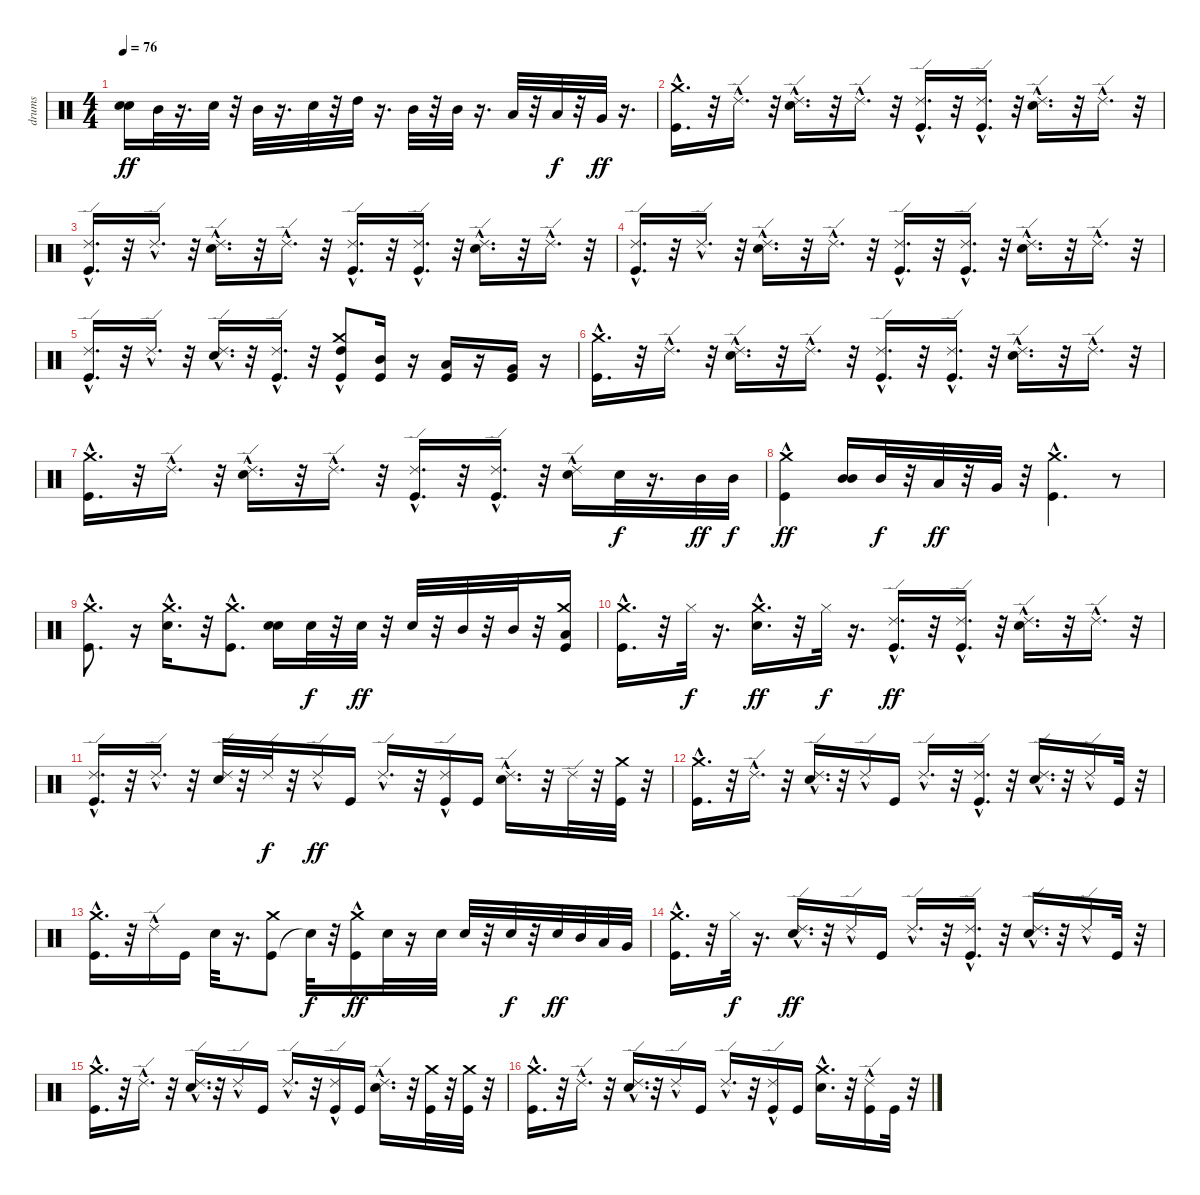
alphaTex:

\track ("drums" "drums") {instrument percussion}
\staff {score}
\articulation defaults
\ts (4 4)
\tempo 76
\clef neutral
\ks c
("Electric Snare (hit)" "Electric Snare (hit)").16{dy ff} "Mid Tom (hit)".32 r.16{d} "Electric Snare (hit)".32 r.32 "Mid Tom (hit)".32 r.16{d} "Electric Snare (hit)".32 r.32 "High Tom (hit)".32 r.16{d} "Mid Tom (hit)".32 r.32 "Mid Tom (hit)".32 r.16{d} "Low Tom (hit)".32 r.32 "Low Tom (hit)".32{dy f} r.32 "Very Low Tom (hit)".32{dy ff} r.16{d} |
("Crash medium (hit)"{hac} "Kick (hit)").16{d} r.32 "Ride (edge) 2"{hac}.16{d} r.32 ("Ride (edge) 2"{hac} "Electric Snare (hit)").16{d} r.32 "Ride (edge) 2"{hac}.16{d} r.32 ("Ride (edge) 2"{hac} "Kick (hit)").16{d} r.32 ("Ride (edge) 2"{hac} "Kick (hit)").16{d} r.32 ("Ride (edge) 2"{hac} "Electric Snare (hit)").16{d} r.32 "Ride (edge) 2"{hac}.16{d} r.32 |
("Kick (hit)" "Ride (edge) 2"{hac}).16{d} r.32 "Ride (edge) 2"{hac}.16{d} r.32 ("Ride (edge) 2"{hac} "Electric Snare (hit)").16{d} r.32 "Ride (edge) 2"{hac}.16{d} r.32 ("Ride (edge) 2"{hac} "Kick (hit)").16{d} r.32 ("Ride (edge) 2"{hac} "Kick (hit)").16{d} r.32 ("Ride (edge) 2"{hac} "Electric Snare (hit)").16{d} r.32 "Ride (edge) 2"{hac}.16{d} r.32 |
("Kick (hit)" "Ride (edge) 2"{hac}).16{d} r.32 "Ride (edge) 2"{hac}.16{d} r.32 ("Ride (edge) 2"{hac} "Electric Snare (hit)").16{d} r.32 "Ride (edge) 2"{hac}.16{d} r.32 ("Ride (edge) 2"{hac} "Kick (hit)").16{d} r.32 ("Ride (edge) 2"{hac} "Kick (hit)").16{d} r.32 ("Ride (edge) 2"{hac} "Electric Snare (hit)").16{d} r.32 "Ride (edge) 2"{hac}.16{d} r.32 |
("Kick (hit)" "Ride (edge) 2"{hac}).16{d} r.32 "Ride (edge) 2"{hac}.16{d} r.32 ("Ride (edge) 2"{hac} "Electric Snare (hit)").16{d} r.32 ("Ride (edge) 2"{hac} "Kick (hit)").16{d} r.32 ("Kick (hit)" "Crash medium (hit)"{hac} "High Tom (hit)").8 ("Kick (hit)" "Mid Tom (hit)").16 r.16 ("Low Tom (hit)" "Kick (hit)").16 r.16 ("Very Low Tom (hit)" "Kick (hit)").16 r.16 |
("Crash medium (hit)"{hac} "Kick (hit)").16{d} r.32 "Ride (edge) 2"{hac}.16{d} r.32 ("Ride (edge) 2"{hac} "Electric Snare (hit)").16{d} r.32 "Ride (edge) 2"{hac}.16{d} r.32 ("Ride (edge) 2"{hac} "Kick (hit)").16{d} r.32 ("Ride (edge) 2"{hac} "Kick (hit)").16{d} r.32 ("Ride (edge) 2"{hac} "Electric Snare (hit)").16{d} r.32 "Ride (edge) 2"{hac}.16{d} r.32 |
("Crash medium (hit)"{hac} "Kick (hit)").16{d} r.32 "Ride (edge) 2"{hac}.16{d} r.32 ("Ride (edge) 2"{hac} "Electric Snare (hit)").16{d} r.32 "Ride (edge) 2"{hac}.16{d} r.32 ("Ride (edge) 2"{hac} "Kick (hit)").16{d} r.32 ("Ride (edge) 2"{hac} "Kick (hit)").16{d} r.32 ("Ride (edge) 2"{hac} "Electric Snare (hit)").16 "Electric Snare (hit)".32{dy f} r.16{d} "Mid Tom (hit)".32{dy ff} "Mid Tom (hit)".32{dy f} |
("Kick (hit)" "Crash medium (hit)"{hac}).4{dy ff} ("Mid Tom (hit)" "Mid Tom (hit)").16 "Mid Tom (hit)".32{dy f} r.32 "Low Tom (hit)".32{dy ff} r.32 "Very Low Tom (hit)".32 r.32 ("Kick (hit)" "Crash medium (hit)"{hac}).4{d} r.8 |
("Kick (hit)" "Crash medium (hit)"{hac}).8{d} r.16 ("Electric Snare (hit)" "Crash medium (hit)"{hac}).16{d} r.32 ("Kick (hit)" "Crash medium (hit)"{hac}).8{d} ("Electric Snare (hit)" "Electric Snare (hit)").16 "Electric Snare (hit)".32{dy f} r.32 "Electric Snare (hit)".32{dy ff} r.32 "Electric Snare (hit)".32 r.32 "Mid Tom (hit)".32 r.32 "Mid Tom (hit)".32 r.32 ("Low Tom (hit)" "Kick (hit)" "Crash medium (hit)").16 |
("Kick (hit)" "Crash medium (hit)"{hac}).16{d} r.32 "Hi-Hat (closed)".32{dy f} r.16{d} ("Electric Snare (hit)" "Crash medium (hit)"{hac}).16{d dy ff} r.32 "Hi-Hat (closed)".32{dy f} r.16{d} ("Kick (hit)" "Ride (edge) 2"{hac}).16{d dy ff} r.32 ("Kick (hit)" "Ride (edge) 2"{hac}).16{d} r.32 ("Electric Snare (hit)" "Ride (edge) 2"{hac}).16{d} r.32 "Ride (edge) 2"{hac}.16{d} r.32 |
("Kick (hit)" "Ride (edge) 2"{hac}).16{d} r.32 "Ride (edge) 2"{hac}.16{d} r.32 ("Ride (edge) 2" "Electric Snare (hit)").32 r.32 "Ride (edge) 2".32{dy f} r.32 "Ride (edge) 2"{hac}.16{dy ff} "Kick (hit)".16 "Ride (edge) 2"{hac}.16{d} r.32 ("Ride (edge) 2"{hac} "Kick (hit)").16 "Kick (hit)".16 ("Ride (edge) 2"{hac} "Electric Snare (hit)").16{d} r.32 "Ride (edge) 2".32 r.32 ("Crash medium (hit)" "Kick (hit)").32 r.32 |
("Crash medium (hit)"{hac} "Kick (hit)").16{d} r.32 "Ride (edge) 2"{hac}.16{d} r.32 ("Ride (edge) 2"{hac} "Electric Snare (hit)").16{d} r.32 "Ride (edge) 2"{hac}.16 "Kick (hit)".16 "Ride (edge) 2"{hac}.16{d} r.32 ("Ride (edge) 2"{hac} "Kick (hit)").16{d} r.32 ("Ride (edge) 2"{hac} "Electric Snare (hit)").16{d} r.32 "Ride (edge) 2"{hac}.16 "Kick (hit)".32 r.32 |
("Kick (hit)" "Crash medium (hit)"{hac}).16{d} r.32 "Ride (edge) 2"{hac}.16 "Kick (hit)".16 "Electric Snare (hit)".32 r.16{d} ("Kick (hit)" "Crash medium (hit)").8 "Snare (hit)"{t}.32{dy f} r.32 ("Kick (hit)" "Crash medium (hit)"{hac}).16{dy ff} "Electric Snare (hit)".32 r.16 "Electric Snare (hit)".32 "Electric Snare (hit)".32 r.32 "Electric Snare (hit)".32{dy f} r.32 "Electric Snare (hit)".32{dy ff} "Mid Tom (hit)".32 "Low Tom (hit)".32 "Very Low Tom (hit)".32 |
("Crash medium (hit)"{hac} "Kick (hit)").16{d} r.32 "Hi-Hat (closed)".32{dy f} r.16{d} ("Ride (edge) 2"{hac} "Electric Snare (hit)").16{d dy ff} r.32 "Ride (edge) 2"{hac}.16 "Kick (hit)".16 "Ride (edge) 2"{hac}.16{d} r.32 ("Ride (edge) 2"{hac} "Kick (hit)").16{d} r.32 ("Ride (edge) 2"{hac} "Electric Snare (hit)").16{d} r.32 "Ride (edge) 2"{hac}.16 "Kick (hit)".32 r.32 |
("Crash medium (hit)"{hac} "Kick (hit)").16{d} r.32 "Ride (edge) 2"{hac}.16{d} r.32 ("Ride (edge) 2"{hac} "Electric Snare (hit)").16{d} r.32 "Ride (edge) 2"{hac}.16 "Kick (hit)".16 "Ride (edge) 2"{hac}.16{d} r.32 ("Ride (edge) 2"{hac} "Kick (hit)").16 "Kick (hit)".16 ("Ride (edge) 2"{hac} "Electric Snare (hit)").16{d} r.32 ("Kick (hit)" "Crash medium (hit)").32 r.32 ("Kick (hit)" "Crash medium (hit)").32 r.32 |
("Crash medium (hit)"{hac} "Kick (hit)").16{d} r.32 "Ride (edge) 2"{hac}.16{d} r.32 ("Ride (edge) 2"{hac} "Electric Snare (hit)").16{d} r.32 "Ride (edge) 2"{hac}.16 "Kick (hit)".16 "Ride (edge) 2"{hac}.16{d} r.32 ("Ride (edge) 2"{hac} "Kick (hit)").16 "Kick (hit)".16 ("Crash medium (hit)"{hac} "Electric Snare (hit)").16{d} r.32 ("Ride (edge) 2"{hac} "Kick (hit)").16 "Kick (hit)".32 r.32
